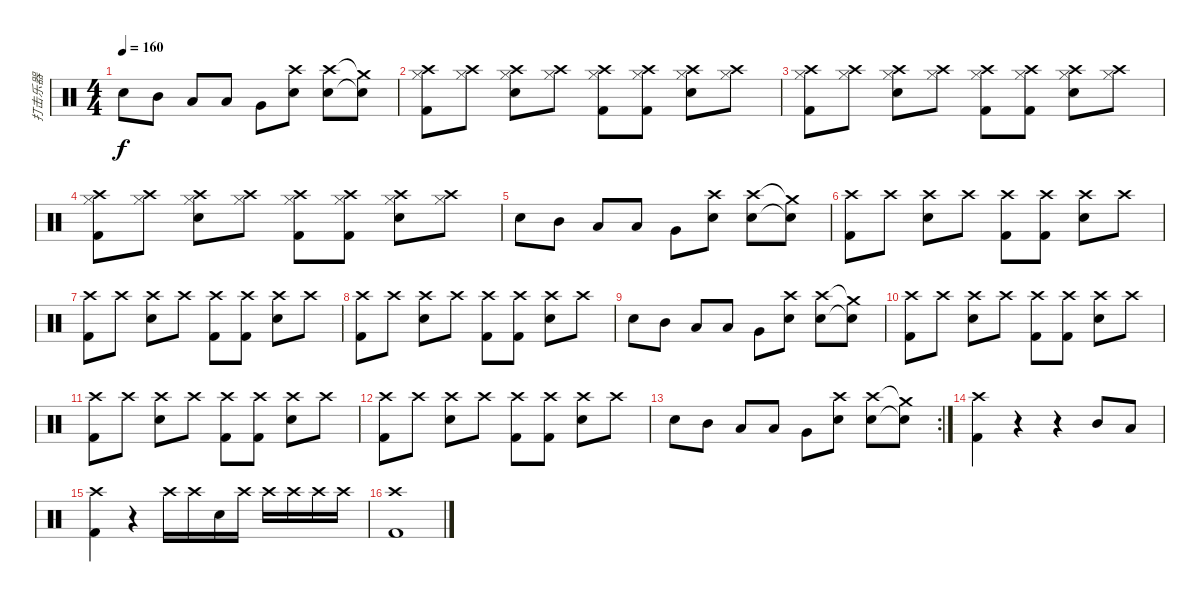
\track ("打击乐器" "打击乐器") {instrument percussion}
\staff {score}
\articulation defaults
\ts (4 4)
\tempo 160
\clef neutral
\ks c "Electric Snare (hit)".8{dy f} "Mid Tom (hit)".8 "Low Tom (hit)".8 "Low Tom (hit)".8 "Very Low Tom (hit)".8
("Crash high (hit)" "Electric Snare (hit)").8 ("Crash high (hit)" "Electric Snare (hit)").8 ("Crash medium (hit)"{t} "Electric Snare (hit)"{t}).8 |
("Crash high (hit)" "Hi-Hat (closed)" "Kick (hit) 2").8 ("Crash high (hit)" "Hi-Hat (closed)").8 ("Crash high (hit)" "Hi-Hat (closed)" "Electric Snare (hit)").8 ("Crash high (hit)" "Hi-Hat (closed)").8 ("Crash high (hit)" "Hi-Hat (closed)" "Kick (hit) 2").8 ("Crash high (hit)" "Hi-Hat (closed)" "Kick (hit) 2").8 ("Crash high (hit)" "Hi-Hat (closed)" "Electric Snare (hit)").8 ("Crash high (hit)" "Hi-Hat (closed)").8 |
("Crash high (hit)" "Hi-Hat (closed)" "Kick (hit) 2").8 ("Crash high (hit)" "Hi-Hat (closed)").8 ("Crash high (hit)" "Hi-Hat (closed)" "Electric Snare (hit)").8 ("Crash high (hit)" "Hi-Hat (closed)").8 ("Crash high (hit)" "Hi-Hat (closed)" "Kick (hit) 2").8 ("Crash high (hit)" "Hi-Hat (closed)" "Kick (hit) 2").8 ("Crash high (hit)" "Hi-Hat (closed)" "Electric Snare (hit)").8 ("Crash high (hit)" "Hi-Hat (closed)").8 |
("Crash high (hit)" "Hi-Hat (closed)" "Kick (hit) 2").8 ("Crash high (hit)" "Hi-Hat (closed)").8 ("Crash high (hit)" "Hi-Hat (closed)" "Electric Snare (hit)").8 ("Crash high (hit)" "Hi-Hat (closed)").8 ("Crash high (hit)" "Hi-Hat (closed)" "Kick (hit) 2").8 ("Crash high (hit)" "Hi-Hat (closed)" "Kick (hit) 2").8 ("Crash high (hit)" "Hi-Hat (closed)" "Electric Snare (hit)").8 ("Crash high (hit)" "Hi-Hat (closed)").8 |
"Electric Snare (hit)".8 "Mid Tom (hit)".8 "Low Tom (hit)".8 "Low Tom (hit)".8 "Very Low Tom (hit)".8 ("Crash high (hit)" "Electric Snare (hit)").8 ("Crash high (hit)" "Electric Snare (hit)").8 ("Crash medium (hit)"{t} "Electric Snare (hit)"{t}).8 |
("Crash high (hit)" "Kick (hit) 2").8 "Crash high (hit)".8 ("Crash high (hit)" "Electric Snare (hit)").8 "Crash high (hit)".8 ("Crash high (hit)" "Kick (hit) 2").8 ("Crash high (hit)" "Kick (hit) 2").8 ("Crash high (hit)" "Electric Snare (hit)").8 "Crash high (hit)".8 |
("Crash high (hit)" "Kick (hit) 2").8 "Crash high (hit)".8 ("Crash high (hit)" "Electric Snare (hit)").8 "Crash high (hit)".8 ("Crash high (hit)" "Kick (hit) 2").8 ("Crash high (hit)" "Kick (hit) 2").8 ("Crash high (hit)" "Electric Snare (hit)").8 "Crash high (hit)".8 |
("Crash high (hit)" "Kick (hit) 2").8 "Crash high (hit)".8 ("Crash high (hit)" "Electric Snare (hit)").8 "Crash high (hit)".8 ("Crash high (hit)" "Kick (hit) 2").8 ("Crash high (hit)" "Kick (hit) 2").8 ("Crash high (hit)" "Electric Snare (hit)").8 "Crash high (hit)".8 |
"Electric Snare (hit)".8 "Mid Tom (hit)".8 "Low Tom (hit)".8 "Low Tom (hit)".8 "Very Low Tom (hit)".8 ("Crash high (hit)" "Electric Snare (hit)").8 ("Crash high (hit)" "Electric Snare (hit)").8 ("Crash medium (hit)"{t} "Electric Snare (hit)"{t}).8 |
("Crash high (hit)" "Kick (hit) 2").8 "Crash high (hit)".8 ("Crash high (hit)" "Electric Snare (hit)").8 "Crash high (hit)".8 ("Crash high (hit)" "Kick (hit) 2").8 ("Crash high (hit)" "Kick (hit) 2").8 ("Crash high (hit)" "Electric Snare (hit)").8 "Crash high (hit)".8 |
("Crash high (hit)" "Kick (hit) 2").8 "Crash high (hit)".8 ("Crash high (hit)" "Electric Snare (hit)").8 "Crash high (hit)".8 ("Crash high (hit)" "Kick (hit) 2").8 ("Crash high (hit)" "Kick (hit) 2").8 ("Crash high (hit)" "Electric Snare (hit)").8 "Crash high (hit)".8 |
("Crash high (hit)" "Kick (hit) 2").8 "Crash high (hit)".8 ("Crash high (hit)" "Electric Snare (hit)").8 "Crash high (hit)".8 ("Crash high (hit)" "Kick (hit) 2").8 ("Crash high (hit)" "Kick (hit) 2").8 ("Crash high (hit)" "Electric Snare (hit)").8 "Crash high (hit)".8 |
\rc 2 "Electric Snare (hit)".8 "Mid Tom (hit)".8 "Low Tom (hit)".8 "Low Tom (hit)".8 "Very Low Tom (hit)".8
("Crash high (hit)" "Electric Snare (hit)").8 ("Crash high (hit)" "Electric Snare (hit)").8 ("Crash medium (hit)"{t} "Electric Snare (hit)"{t}).8 |
("Crash high (hit)" "Kick (hit) 2").4 r.4 r.4 "Mid Tom (hit)".8 "Low Tom (hit)".8 |
("Crash high (hit)" "Kick (hit) 2").4 r.4 "Crash high (hit)".16 "Crash high (hit)".16 "Snare (hit)".16 "Crash high (hit)".16 "Crash high (hit)".16 "Crash high (hit)".16 "Crash high (hit)".16 "Crash high (hit)".16 |
("Kick (hit) 2" "Crash high (hit)").1
